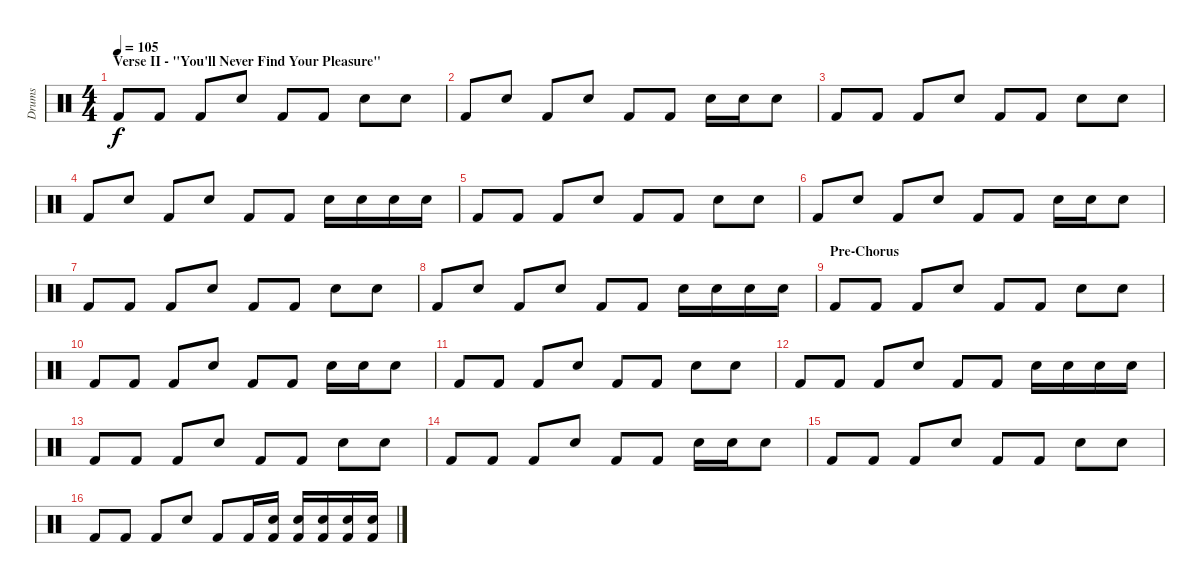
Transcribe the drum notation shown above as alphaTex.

\track ("Drums" "Drums") {instrument percussion}
\staff {score}
\articulation defaults
\ts (4 4)
\section ("" "Verse II - \"You'll Never Find Your Pleasure\"")
\tempo 105
\clef neutral
\ks c "Kick (hit) 2".8{dy f} "Kick (hit) 2".8 "Kick (hit) 2".8 "Snare (hit) 2".8 "Kick (hit) 2".8 "Kick (hit) 2".8 "Snare (hit) 2".8 "Snare (hit) 2".8
|
"Kick (hit) 2".8 "Snare (hit) 2".8 "Kick (hit) 2".8 "Snare (hit) 2".8 "Kick (hit) 2".8 "Kick (hit) 2".8 "Snare (hit) 2".16 "Snare (hit) 2".16 "Snare (hit) 2".8 |
"Kick (hit) 2".8 "Kick (hit) 2".8 "Kick (hit) 2".8 "Snare (hit) 2".8 "Kick (hit) 2".8 "Kick (hit) 2".8 "Snare (hit) 2".8 "Snare (hit) 2".8 |
"Kick (hit) 2".8 "Snare (hit) 2".8 "Kick (hit) 2".8 "Snare (hit) 2".8 "Kick (hit) 2".8 "Kick (hit) 2".8 "Snare (hit) 2".16 "Snare (hit) 2".16 "Snare (hit) 2".16 "Snare (hit) 2".16 |
"Kick (hit) 2".8 "Kick (hit) 2".8 "Kick (hit) 2".8 "Snare (hit) 2".8 "Kick (hit) 2".8 "Kick (hit) 2".8 "Snare (hit) 2".8 "Snare (hit) 2".8 |
"Kick (hit) 2".8 "Snare (hit) 2".8 "Kick (hit) 2".8 "Snare (hit) 2".8 "Kick (hit) 2".8 "Kick (hit) 2".8 "Snare (hit) 2".16 "Snare (hit) 2".16 "Snare (hit) 2".8 |
"Kick (hit) 2".8 "Kick (hit) 2".8 "Kick (hit) 2".8 "Snare (hit) 2".8 "Kick (hit) 2".8 "Kick (hit) 2".8 "Snare (hit) 2".8 "Snare (hit) 2".8 |
"Kick (hit) 2".8 "Snare (hit) 2".8 "Kick (hit) 2".8 "Snare (hit) 2".8 "Kick (hit) 2".8 "Kick (hit) 2".8 "Snare (hit) 2".16 "Snare (hit) 2".16 "Snare (hit) 2".16 "Snare (hit) 2".16 |
\section ("" "Pre-Chorus")
"Kick (hit) 2".8 "Kick (hit) 2".8 "Kick (hit) 2".8 "Snare (hit) 2".8 "Kick (hit) 2".8 "Kick (hit) 2".8 "Snare (hit) 2".8 "Snare (hit) 2".8 |
"Kick (hit) 2".8 "Kick (hit) 2".8 "Kick (hit) 2".8 "Snare (hit) 2".8 "Kick (hit) 2".8 "Kick (hit) 2".8 "Snare (hit) 2".16 "Snare (hit) 2".16 "Snare (hit) 2".8 |
"Kick (hit) 2".8 "Kick (hit) 2".8 "Kick (hit) 2".8 "Snare (hit) 2".8 "Kick (hit) 2".8 "Kick (hit) 2".8 "Snare (hit) 2".8 "Snare (hit) 2".8 |
"Kick (hit) 2".8 "Kick (hit) 2".8 "Kick (hit) 2".8 "Snare (hit) 2".8 "Kick (hit) 2".8 "Kick (hit) 2".8 "Snare (hit) 2".16 "Snare (hit) 2".16 "Snare (hit) 2".16 "Snare (hit) 2".16 |
"Kick (hit) 2".8 "Kick (hit) 2".8 "Kick (hit) 2".8 "Snare (hit) 2".8 "Kick (hit) 2".8 "Kick (hit) 2".8 "Snare (hit) 2".8 "Snare (hit) 2".8 |
"Kick (hit) 2".8 "Kick (hit) 2".8 "Kick (hit) 2".8 "Snare (hit) 2".8 "Kick (hit) 2".8 "Kick (hit) 2".8 "Snare (hit) 2".16 "Snare (hit) 2".16 "Snare (hit) 2".8 |
"Kick (hit) 2".8 "Kick (hit) 2".8 "Kick (hit) 2".8 "Snare (hit) 2".8 "Kick (hit) 2".8 "Kick (hit) 2".8 "Snare (hit) 2".8 "Snare (hit) 2".8 |
"Kick (hit) 2".8 "Kick (hit) 2".8 "Kick (hit) 2".8 "Snare (hit) 2".8 "Kick (hit) 2".8 "Kick (hit) 2".16 ("Snare (hit) 2" "Kick (hit) 2").16 ("Snare (hit) 2" "Kick (hit) 2").16 ("Snare (hit) 2" "Kick (hit) 2").16 ("Snare (hit) 2" "Kick (hit) 2").16 ("Snare (hit) 2" "Kick (hit) 2").16
